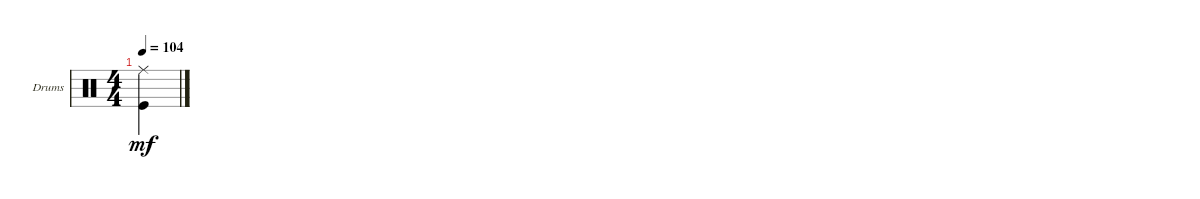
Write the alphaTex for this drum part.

\bracketExtendMode groupsimilarinstruments
\firstSystemTrackNameOrientation horizontal
\otherSystemsTrackNameOrientation horizontal
\track ("Drumkit" "Drums") {instrument percussion}
\staff {score}
\articulation defaults
\ts (4 4)
\tempo 104
\clef neutral
\scale
0.333333
\ks c
("Kick (hit)" "Ride (middle)").4{dy mf} |
\scale
0.333333
